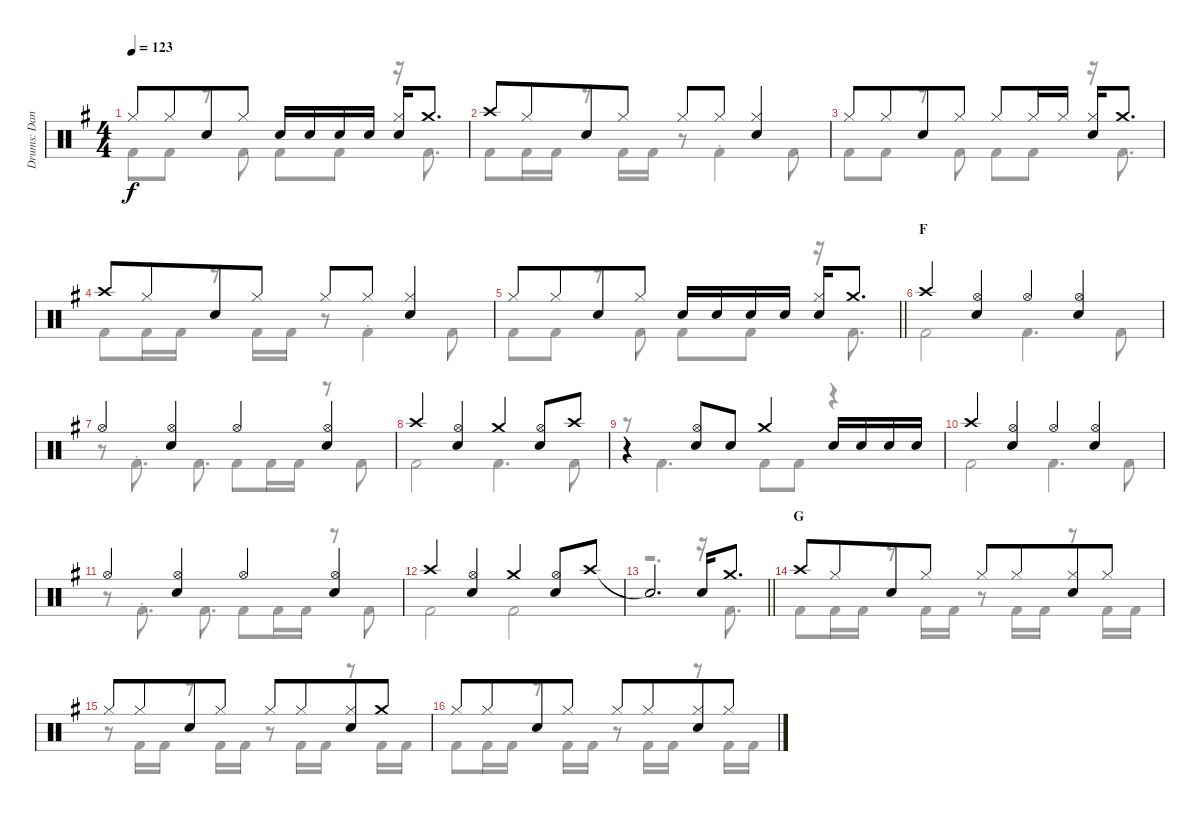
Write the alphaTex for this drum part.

\track ("Drums: Dana" "Drums: Dan") {instrument percussion}
\staff {score}
\articulation defaults
\voice
\ts (4 4)
\tempo 123
\clef neutral
\ks g "Hi-Hat (closed)".8{dy f} "Hi-Hat (closed)".8{beam merge} "Snare (hit) 2".8 "Hi-Hat (closed)".8 "Snare (hit) 2".16 "Snare (hit) 2".16 "Snare (hit) 2".16 "Snare (hit) 2".16
("Hi-Hat (closed)" "Snare (hit) 2").16 "Crash medium (hit)".8{d} |
"Crash high (hit)".8 "Hi-Hat (closed)".8{beam merge} "Snare (hit) 2".8 "Hi-Hat (closed)".8 "Hi-Hat (closed)".8 "Hi-Hat (closed)".8 ("Hi-Hat (closed)" "Snare (hit) 2").4 |
"Hi-Hat (closed)".8 "Hi-Hat (closed)".8{beam merge} "Snare (hit) 2".8 "Hi-Hat (closed)".8 "Hi-Hat (closed)".8 "Hi-Hat (closed)".16 "Hi-Hat (closed)".16 ("Hi-Hat (closed)" "Snare (hit) 2").16 "Crash medium (hit)".8{d} |
"Crash high (hit)".8 "Hi-Hat (closed)".8{beam merge} "Snare (hit) 2".8 "Hi-Hat (closed)".8 "Hi-Hat (closed)".8 "Hi-Hat (closed)".8 ("Hi-Hat (closed)" "Snare (hit) 2").4 |
\barLineRight lightlight "Hi-Hat (closed)".8 "Hi-Hat (closed)".8{beam merge} "Snare (hit) 2".8 "Hi-Hat (closed)".8 "Snare (hit) 2".16 "Snare (hit) 2".16 "Snare (hit) 2".16 "Snare (hit) 2".16
("Hi-Hat (closed)" "Snare (hit) 2").16 "Crash medium (hit)".8{d} |
\section ("" "F")
"Crash high (hit)".4 ("Hi-Hat (open)" "Snare (hit) 2").4 "Hi-Hat (open)".4 ("Hi-Hat (open)" "Snare (hit) 2").4 |
"Hi-Hat (open)".4 ("Hi-Hat (open)" "Snare (hit) 2").4 "Hi-Hat (open)".4 ("Hi-Hat (open)" "Snare (hit) 2").4 |
"Crash high (hit)".4 ("Hi-Hat (open)" "Snare (hit) 2").4 "Crash medium (hit)".4 ("Hi-Hat (open)" "Snare (hit) 2").8 "Crash high (hit)".8 |
r.4 ("Hi-Hat (open)" "Snare (hit) 2").8 "Snare (hit) 2".8 "Crash medium (hit)".4 "Snare (hit) 2".16 "Snare (hit) 2".16 "Snare (hit) 2".16 "Snare (hit) 2".16 |
"Crash high (hit)".4 ("Hi-Hat (open)" "Snare (hit) 2").4 "Hi-Hat (open)".4 ("Hi-Hat (open)" "Snare (hit) 2").4 |
"Hi-Hat (open)".4 ("Hi-Hat (open)" "Snare (hit) 2").4 "Hi-Hat (open)".4 ("Hi-Hat (open)" "Snare (hit) 2").4 |
"Crash high (hit)".4 ("Hi-Hat (open)" "Snare (hit) 2").4 "Crash medium (hit)".4 ("Hi-Hat (open)" "Snare (hit) 2").8 "Crash high (hit)".8 |
\barLineRight lightlight "Snare (hit)"{t}.2{d} "Snare (hit) 2".16 "Crash medium (hit)".8{d}
|
\section ("" "G")
"Crash high (hit)".8 "Hi-Hat (closed)".8{beam merge} "Snare (hit) 2".8 "Hi-Hat (closed)".8 "Hi-Hat (closed)".8 "Hi-Hat (closed)".8{beam merge} ("Hi-Hat (closed)" "Snare (hit) 2").8 "Hi-Hat (closed)".8 |
"Hi-Hat (closed)".8 "Hi-Hat (closed)".8{beam merge} "Snare (hit) 2".8 "Hi-Hat (closed)".8 "Hi-Hat (closed)".8 "Hi-Hat (closed)".8{beam merge} ("Hi-Hat (closed)" "Snare (hit) 2").8 "Crash medium (hit)".8 |
"Hi-Hat (closed)".8 "Hi-Hat (closed)".8{beam merge} "Snare (hit) 2".8 "Hi-Hat (closed)".8 "Hi-Hat (closed)".8 "Hi-Hat (closed)".8{beam merge} ("Hi-Hat (closed)" "Snare (hit) 2").8 "Hi-Hat (closed)".8
\voice
\clef neutral
\ottava regular
\simile none
\ks g "Kick (hit) 2".8{dy f} "Kick (hit) 2".8
r.8 "Kick (hit) 2".8 "Kick (hit) 2".8 "Kick (hit) 2".8 r.16 "Kick (hit) 2".8{d} |
"Kick (hit) 2".8 "Kick (hit) 2".16 "Kick (hit) 2".16 r.8 "Kick (hit) 2".16 "Kick (hit) 2".16 r.8 "Kick (hit) 2"{st}.4 "Kick (hit) 2".8 |
"Kick (hit) 2".8 "Kick (hit) 2".8 r.8 "Kick (hit) 2".8 "Kick (hit) 2".8 "Kick (hit) 2".8 r.16 "Kick (hit) 2".8{d} |
"Kick (hit) 2".8 "Kick (hit) 2".16 "Kick (hit) 2".16 r.8 "Kick (hit) 2".16 "Kick (hit) 2".16 r.8 "Kick (hit) 2"{st}.4 "Kick (hit) 2".8 |
\barLineRight lightlight "Kick (hit) 2".8 "Kick (hit) 2".8
r.8 "Kick (hit) 2".8 "Kick (hit) 2".8 "Kick (hit) 2".8 r.16 "Kick (hit) 2".8{d} |
"Kick (hit) 2".2 "Kick (hit) 2".4{d} "Kick (hit) 2".8 |
r.8 "Kick (hit) 2"{st}.8{d} "Kick (hit) 2".8{d} "Kick (hit) 2".8 "Kick (hit) 2".16 "Kick (hit) 2".16 r.8 "Kick (hit) 2".8 |
"Kick (hit) 2".2 "Kick (hit) 2".4{d} "Kick (hit) 2".8 |
r.8 "Kick (hit) 2".4{d} "Kick (hit) 2".8 "Kick (hit) 2".8 r.4 |
"Kick (hit) 2".2 "Kick (hit) 2".4{d} "Kick (hit) 2".8 |
r.8 "Kick (hit) 2"{st}.8{d} "Kick (hit) 2".8{d} "Kick (hit) 2".8 "Kick (hit) 2".16 "Kick (hit) 2".16 r.8 "Kick (hit) 2".8 |
"Kick (hit) 2".2 "Kick (hit) 2".2 |
\barLineRight lightlight
r.2{d} r.16 "Kick (hit) 2".8{d} |
"Kick (hit) 2".8 "Kick (hit) 2".16 "Kick (hit) 2".16 r.8 "Kick (hit) 2".16 "Kick (hit) 2".16 r.8 "Kick (hit) 2".16 "Kick (hit) 2".16 r.8 "Kick (hit) 2".16 "Kick (hit) 2".16 |
r.8 "Kick (hit) 2".16 "Kick (hit) 2".16 r.8 "Kick (hit) 2".16 "Kick (hit) 2".16 r.8 "Kick (hit) 2".16 "Kick (hit) 2".16 r.8 "Kick (hit) 2".16 "Kick (hit) 2".16 |
"Kick (hit) 2".8 "Kick (hit) 2".16 "Kick (hit) 2".16 r.8 "Kick (hit) 2".16 "Kick (hit) 2".16 r.8 "Kick (hit) 2".16 "Kick (hit) 2".16 r.8 "Kick (hit) 2".16 "Kick (hit) 2".16
